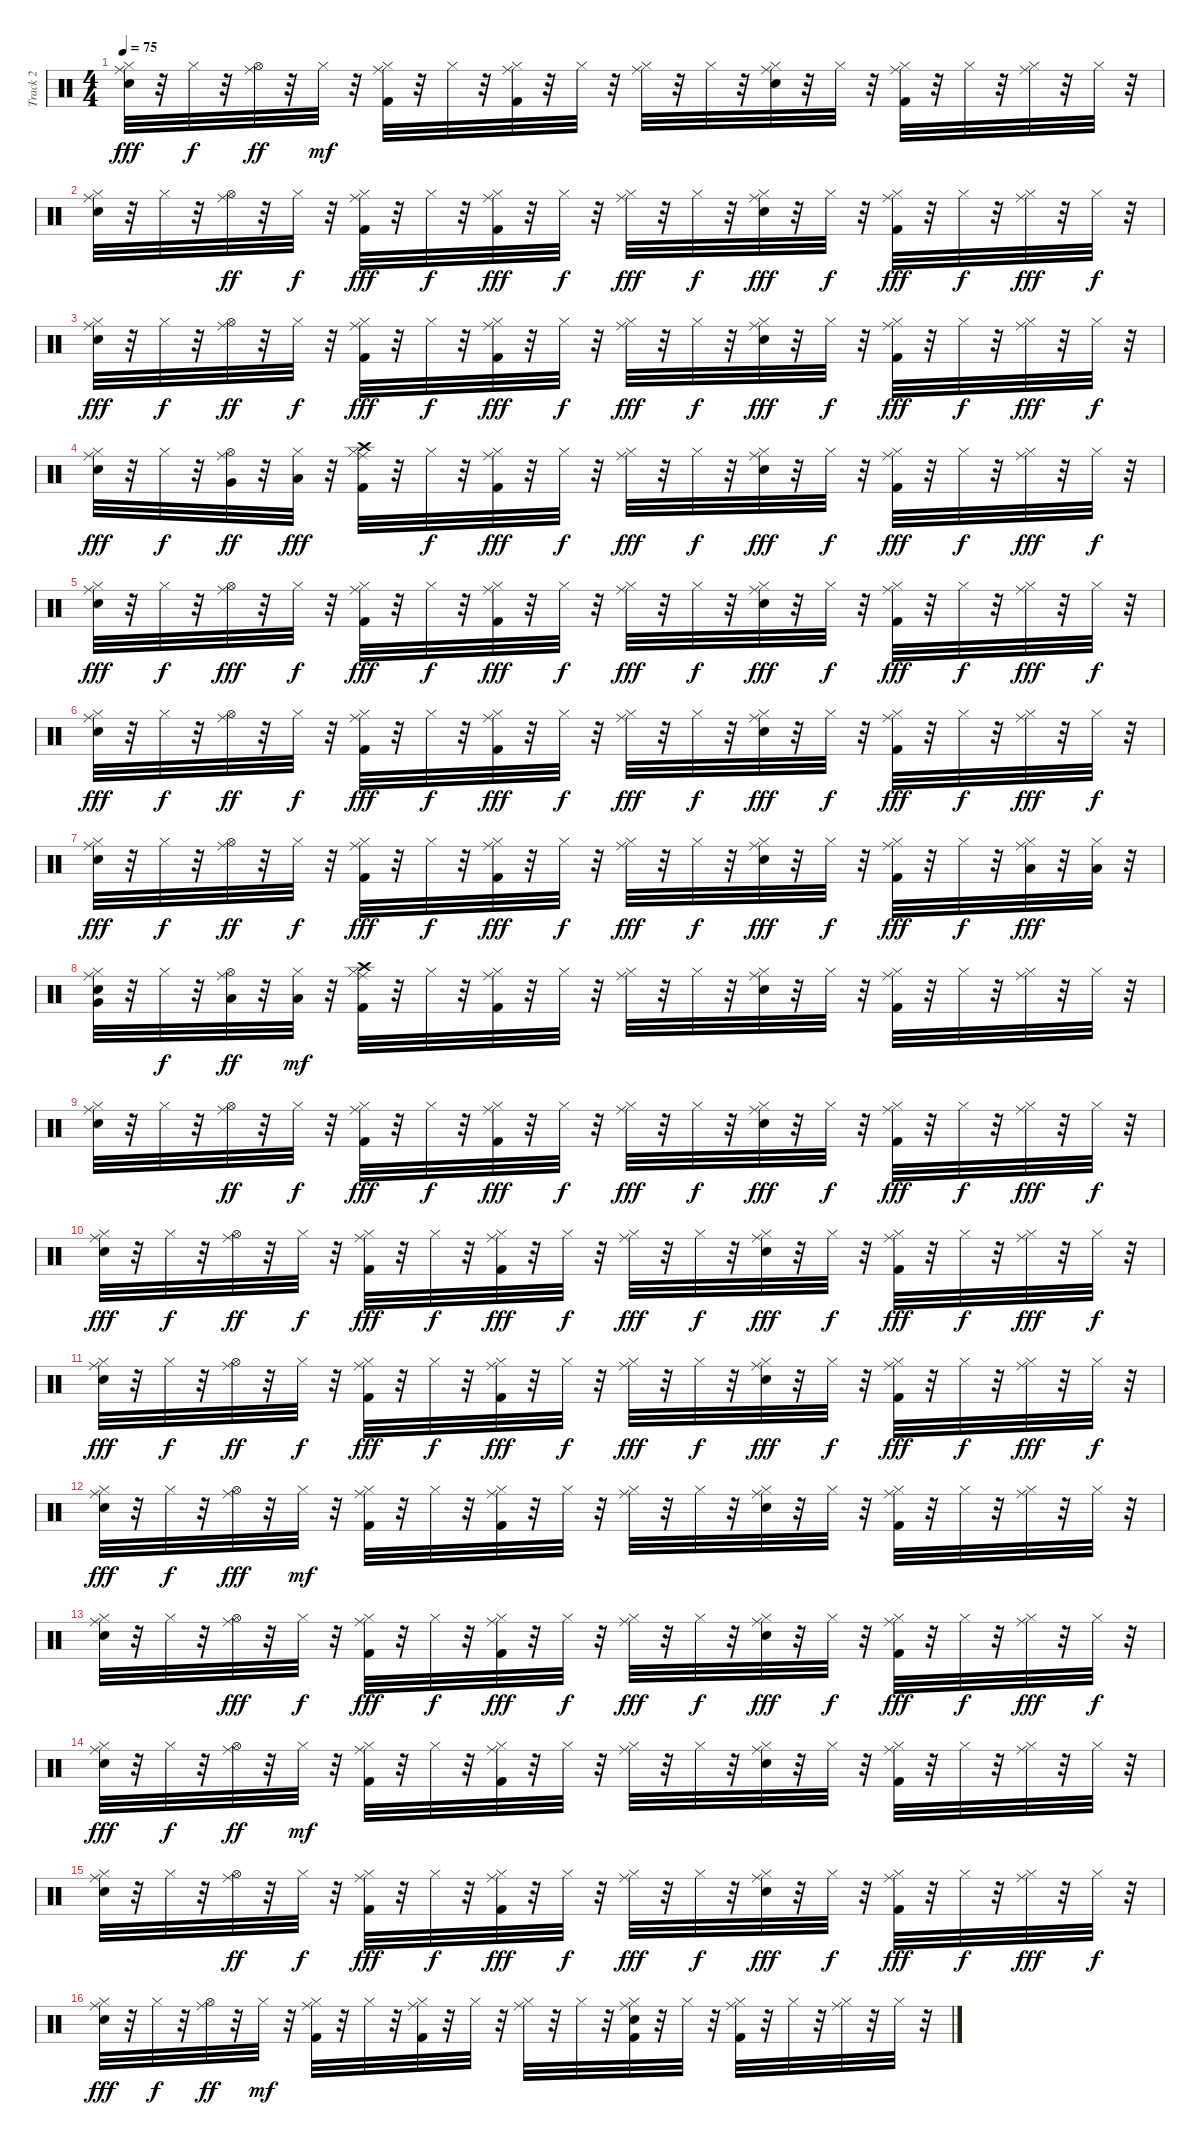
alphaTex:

\track ("Track 2" "Track 2") {instrument percussion}
\staff {score}
\articulation defaults
\ts (4 4)
\tempo 75
\clef neutral
\ks c
("Snare (hit) 2" "Ride (middle)" "Hi-Hat (closed)").32{dy fff} r.32 "Hi-Hat (closed)".32{dy f} r.32 ("Ride (middle)" "Hi-Hat (open)").32{dy ff} r.32 "Hi-Hat (closed)".32{dy mf} r.32 ("Kick (hit) 2" "Ride (middle)" "Hi-Hat (closed)").32 r.32 "Hi-Hat (closed)".32 r.32 ("Kick (hit) 2" "Ride (middle)" "Hi-Hat (closed)").32 r.32 "Hi-Hat (closed)".32 r.32 ("Ride (middle)" "Hi-Hat (closed)").32 r.32 "Hi-Hat (closed)".32 r.32 ("Snare (hit) 2" "Ride (middle)" "Hi-Hat (closed)").32 r.32 "Hi-Hat (closed)".32 r.32 ("Ride (middle)" "Kick (hit) 2" "Hi-Hat (closed)").32 r.32 "Hi-Hat (closed)".32 r.32 ("Ride (middle)" "Hi-Hat (closed)").32 r.32 "Hi-Hat (closed)".32 r.32 |
("Snare (hit) 2" "Ride (middle)" "Hi-Hat (closed)").32 r.32 "Hi-Hat (closed)".32 r.32 ("Ride (middle)" "Hi-Hat (open)").32{dy ff} r.32 "Hi-Hat (closed)".32{dy f} r.32 ("Kick (hit) 2" "Ride (middle)" "Hi-Hat (closed)").32{dy fff} r.32 "Hi-Hat (closed)".32{dy f} r.32 ("Kick (hit) 2" "Ride (middle)" "Hi-Hat (closed)").32{dy fff} r.32 "Hi-Hat (closed)".32{dy f} r.32 ("Ride (middle)" "Hi-Hat (closed)").32{dy fff} r.32 "Hi-Hat (closed)".32{dy f} r.32 ("Snare (hit) 2" "Ride (middle)" "Hi-Hat (closed)").32{dy fff} r.32 "Hi-Hat (closed)".32{dy f} r.32 ("Ride (middle)" "Kick (hit) 2" "Hi-Hat (closed)").32{dy fff} r.32 "Hi-Hat (closed)".32{dy f} r.32 ("Ride (middle)" "Hi-Hat (closed)").32{dy fff} r.32 "Hi-Hat (closed)".32{dy f} r.32 |
("Snare (hit) 2" "Ride (middle)" "Hi-Hat (closed)").32{dy fff} r.32 "Hi-Hat (closed)".32{dy f} r.32 ("Ride (middle)" "Hi-Hat (open)").32{dy ff} r.32 "Hi-Hat (closed)".32{dy f} r.32 ("Ride (middle)" "Kick (hit) 2" "Hi-Hat (closed)").32{dy fff} r.32 "Hi-Hat (closed)".32{dy f} r.32 ("Kick (hit) 2" "Ride (middle)" "Hi-Hat (closed)").32{dy fff} r.32 "Hi-Hat (closed)".32{dy f} r.32 ("Ride (middle)" "Hi-Hat (closed)").32{dy fff} r.32 "Hi-Hat (closed)".32{dy f} r.32 ("Snare (hit) 2" "Ride (middle)" "Hi-Hat (closed)").32{dy fff} r.32 "Hi-Hat (closed)".32{dy f} r.32 ("Kick (hit) 2" "Ride (middle)" "Hi-Hat (closed)").32{dy fff} r.32 "Hi-Hat (closed)".32{dy f} r.32 ("Ride (middle)" "Hi-Hat (closed)").32{dy fff} r.32 "Hi-Hat (closed)".32{dy f} r.32 |
("Snare (hit) 2" "Ride (middle)" "Hi-Hat (closed)").32{dy fff} r.32 "Hi-Hat (closed)".32{dy f} r.32 ("Ride (middle)" "Very Low Tom (hit)" "Hi-Hat (open)").32{dy ff} r.32 ("Low Floor Tom (hit)" "Hi-Hat (closed)").32{dy fff} r.32 ("Kick (hit) 2" "Ride (middle)" "Crash high (hit)" "Hi-Hat (closed)").32 r.32 "Hi-Hat (closed)".32{dy f} r.32 ("Kick (hit) 2" "Ride (middle)" "Hi-Hat (closed)").32{dy fff} r.32 "Hi-Hat (closed)".32{dy f} r.32 ("Ride (middle)" "Hi-Hat (closed)").32{dy fff} r.32 "Hi-Hat (closed)".32{dy f} r.32 ("Snare (hit) 2" "Ride (middle)" "Hi-Hat (closed)").32{dy fff} r.32 "Hi-Hat (closed)".32{dy f} r.32 ("Kick (hit) 2" "Ride (middle)" "Hi-Hat (closed)").32{dy fff} r.32 "Hi-Hat (closed)".32{dy f} r.32 ("Ride (middle)" "Hi-Hat (closed)").32{dy fff} r.32 "Hi-Hat (closed)".32{dy f} r.32 |
("Ride (middle)" "Snare (hit) 2" "Hi-Hat (closed)").32{dy fff} r.32 "Hi-Hat (closed)".32{dy f} r.32 ("Ride (middle)" "Hi-Hat (open)").32{dy fff} r.32 "Hi-Hat (closed)".32{dy f} r.32 ("Kick (hit) 2" "Ride (middle)" "Hi-Hat (closed)").32{dy fff} r.32 "Hi-Hat (closed)".32{dy f} r.32 ("Ride (middle)" "Kick (hit) 2" "Hi-Hat (closed)").32{dy fff} r.32 "Hi-Hat (closed)".32{dy f} r.32 ("Ride (middle)" "Hi-Hat (closed)").32{dy fff} r.32 "Hi-Hat (closed)".32{dy f} r.32 ("Ride (middle)" "Snare (hit) 2" "Hi-Hat (closed)").32{dy fff} r.32 "Hi-Hat (closed)".32{dy f} r.32 ("Kick (hit) 2" "Ride (middle)" "Hi-Hat (closed)").32{dy fff} r.32 "Hi-Hat (closed)".32{dy f} r.32 ("Ride (middle)" "Hi-Hat (closed)").32{dy fff} r.32 "Hi-Hat (closed)".32{dy f} r.32 |
("Snare (hit) 2" "Ride (middle)" "Hi-Hat (closed)").32{dy fff} r.32 "Hi-Hat (closed)".32{dy f} r.32 ("Ride (middle)" "Hi-Hat (open)").32{dy ff} r.32 "Hi-Hat (closed)".32{dy f} r.32 ("Kick (hit) 2" "Ride (middle)" "Hi-Hat (closed)").32{dy fff} r.32 "Hi-Hat (closed)".32{dy f} r.32 ("Kick (hit) 2" "Ride (middle)" "Hi-Hat (closed)").32{dy fff} r.32 "Hi-Hat (closed)".32{dy f} r.32 ("Ride (middle)" "Hi-Hat (closed)").32{dy fff} r.32 "Hi-Hat (closed)".32{dy f} r.32 ("Snare (hit) 2" "Ride (middle)" "Hi-Hat (closed)").32{dy fff} r.32 "Hi-Hat (closed)".32{dy f} r.32 ("Ride (middle)" "Kick (hit) 2" "Hi-Hat (closed)").32{dy fff} r.32 "Hi-Hat (closed)".32{dy f} r.32 ("Ride (middle)" "Hi-Hat (closed)").32{dy fff} r.32 "Hi-Hat (closed)".32{dy f} r.32 |
("Ride (middle)" "Snare (hit) 2" "Hi-Hat (closed)").32{dy fff} r.32 "Hi-Hat (closed)".32{dy f} r.32 ("Ride (middle)" "Hi-Hat (open)").32{dy ff} r.32 "Hi-Hat (closed)".32{dy f} r.32 ("Kick (hit) 2" "Ride (middle)" "Hi-Hat (closed)").32{dy fff} r.32 "Hi-Hat (closed)".32{dy f} r.32 ("Kick (hit) 2" "Ride (middle)" "Hi-Hat (closed)").32{dy fff} r.32 "Hi-Hat (closed)".32{dy f} r.32 ("Ride (middle)" "Hi-Hat (closed)").32{dy fff} r.32 "Hi-Hat (closed)".32{dy f} r.32 ("Snare (hit) 2" "Ride (middle)" "Hi-Hat (closed)").32{dy fff} r.32 "Hi-Hat (closed)".32{dy f} r.32 ("Ride (middle)" "Kick (hit) 2" "Hi-Hat (closed)").32{dy fff} r.32 "Hi-Hat (closed)".32{dy f} r.32 ("Ride (middle)" "Low Tom (hit)" "Hi-Hat (closed)").32{dy fff} r.32 ("Low Tom (hit)" "Hi-Hat (closed)").32 r.32 |
("Snare (hit) 2" "Ride (middle)" "Very Low Tom (hit)" "Hi-Hat (closed)").32 r.32 "Hi-Hat (closed)".32{dy f} r.32 ("Ride (middle)" "Low Floor Tom (hit)" "Hi-Hat (open)").32{dy ff} r.32 ("Low Floor Tom (hit)" "Hi-Hat (closed)").32{dy mf} r.32 ("Kick (hit) 2" "Ride (middle)" "Crash high (hit)" "Hi-Hat (closed)").32 r.32 "Hi-Hat (closed)".32 r.32 ("Kick (hit) 2" "Ride (middle)" "Hi-Hat (closed)").32 r.32 "Hi-Hat (closed)".32 r.32 ("Ride (middle)" "Hi-Hat (closed)").32 r.32 "Hi-Hat (closed)".32 r.32 ("Snare (hit) 2" "Ride (middle)" "Hi-Hat (closed)").32 r.32 "Hi-Hat (closed)".32 r.32 ("Ride (middle)" "Kick (hit) 2" "Hi-Hat (closed)").32 r.32 "Hi-Hat (closed)".32 r.32 ("Ride (middle)" "Hi-Hat (closed)").32 r.32 "Hi-Hat (closed)".32 r.32 |
("Snare (hit) 2" "Ride (middle)" "Hi-Hat (closed)").32 r.32 "Hi-Hat (closed)".32 r.32 ("Ride (middle)" "Hi-Hat (open)").32{dy ff} r.32 "Hi-Hat (closed)".32{dy f} r.32 ("Kick (hit) 2" "Ride (middle)" "Hi-Hat (closed)").32{dy fff} r.32 "Hi-Hat (closed)".32{dy f} r.32 ("Kick (hit) 2" "Ride (middle)" "Hi-Hat (closed)").32{dy fff} r.32 "Hi-Hat (closed)".32{dy f} r.32 ("Ride (middle)" "Hi-Hat (closed)").32{dy fff} r.32 "Hi-Hat (closed)".32{dy f} r.32 ("Snare (hit) 2" "Ride (middle)" "Hi-Hat (closed)").32{dy fff} r.32 "Hi-Hat (closed)".32{dy f} r.32 ("Kick (hit) 2" "Ride (middle)" "Hi-Hat (closed)").32{dy fff} r.32 "Hi-Hat (closed)".32{dy f} r.32 ("Ride (middle)" "Hi-Hat (closed)").32{dy fff} r.32 "Hi-Hat (closed)".32{dy f} r.32 |
("Snare (hit) 2" "Ride (middle)" "Hi-Hat (closed)").32{dy fff} r.32 "Hi-Hat (closed)".32{dy f} r.32 ("Ride (middle)" "Hi-Hat (open)").32{dy ff} r.32 "Hi-Hat (closed)".32{dy f} r.32 ("Ride (middle)" "Kick (hit) 2" "Hi-Hat (closed)").32{dy fff} r.32 "Hi-Hat (closed)".32{dy f} r.32 ("Kick (hit) 2" "Ride (middle)" "Hi-Hat (closed)").32{dy fff} r.32 "Hi-Hat (closed)".32{dy f} r.32 ("Ride (middle)" "Hi-Hat (closed)").32{dy fff} r.32 "Hi-Hat (closed)".32{dy f} r.32 ("Snare (hit) 2" "Ride (middle)" "Hi-Hat (closed)").32{dy fff} r.32 "Hi-Hat (closed)".32{dy f} r.32 ("Kick (hit) 2" "Ride (middle)" "Hi-Hat (closed)").32{dy fff} r.32 "Hi-Hat (closed)".32{dy f} r.32 ("Ride (middle)" "Hi-Hat (closed)").32{dy fff} r.32 "Hi-Hat (closed)".32{dy f} r.32 |
("Snare (hit) 2" "Ride (middle)" "Hi-Hat (closed)").32{dy fff} r.32 "Hi-Hat (closed)".32{dy f} r.32 ("Ride (middle)" "Hi-Hat (open)").32{dy ff} r.32 "Hi-Hat (closed)".32{dy f} r.32 ("Kick (hit) 2" "Ride (middle)" "Hi-Hat (closed)").32{dy fff} r.32 "Hi-Hat (closed)".32{dy f} r.32 ("Ride (middle)" "Kick (hit) 2" "Hi-Hat (closed)").32{dy fff} r.32 "Hi-Hat (closed)".32{dy f} r.32 ("Ride (middle)" "Hi-Hat (closed)").32{dy fff} r.32 "Hi-Hat (closed)".32{dy f} r.32 ("Ride (middle)" "Snare (hit) 2" "Hi-Hat (closed)").32{dy fff} r.32 "Hi-Hat (closed)".32{dy f} r.32 ("Ride (middle)" "Kick (hit) 2" "Hi-Hat (closed)").32{dy fff} r.32 "Hi-Hat (closed)".32{dy f} r.32 ("Ride (middle)" "Hi-Hat (closed)").32{dy fff} r.32 "Hi-Hat (closed)".32{dy f} r.32 |
("Snare (hit) 2" "Ride (middle)" "Hi-Hat (closed)").32{dy fff} r.32 "Hi-Hat (closed)".32{dy f} r.32 ("Ride (middle)" "Hi-Hat (open)").32{dy fff} r.32 "Hi-Hat (closed)".32{dy mf} r.32 ("Kick (hit) 2" "Ride (middle)" "Hi-Hat (closed)").32 r.32 "Hi-Hat (closed)".32 r.32 ("Kick (hit) 2" "Ride (middle)" "Hi-Hat (closed)").32 r.32 "Hi-Hat (closed)".32 r.32 ("Ride (middle)" "Hi-Hat (closed)").32 r.32 "Hi-Hat (closed)".32 r.32 ("Snare (hit) 2" "Ride (middle)" "Hi-Hat (closed)").32 r.32 "Hi-Hat (closed)".32 r.32 ("Kick (hit) 2" "Ride (middle)" "Hi-Hat (closed)").32 r.32 "Hi-Hat (closed)".32 r.32 ("Ride (middle)" "Hi-Hat (closed)").32 r.32 "Hi-Hat (closed)".32 r.32 |
("Snare (hit) 2" "Ride (middle)" "Hi-Hat (closed)").32 r.32 "Hi-Hat (closed)".32 r.32 ("Ride (middle)" "Hi-Hat (open)").32{dy fff} r.32 "Hi-Hat (closed)".32{dy f} r.32 ("Kick (hit) 2" "Ride (middle)" "Hi-Hat (closed)").32{dy fff} r.32 "Hi-Hat (closed)".32{dy f} r.32 ("Ride (middle)" "Kick (hit) 2" "Hi-Hat (closed)").32{dy fff} r.32 "Hi-Hat (closed)".32{dy f} r.32 ("Ride (middle)" "Hi-Hat (closed)").32{dy fff} r.32 "Hi-Hat (closed)".32{dy f} r.32 ("Snare (hit) 2" "Ride (middle)" "Hi-Hat (closed)").32{dy fff} r.32 "Hi-Hat (closed)".32{dy f} r.32 ("Kick (hit) 2" "Ride (middle)" "Hi-Hat (closed)").32{dy fff} r.32 "Hi-Hat (closed)".32{dy f} r.32 ("Ride (middle)" "Hi-Hat (closed)").32{dy fff} r.32 "Hi-Hat (closed)".32{dy f} r.32 |
("Snare (hit) 2" "Ride (middle)" "Hi-Hat (closed)").32{dy fff} r.32 "Hi-Hat (closed)".32{dy f} r.32 ("Ride (middle)" "Hi-Hat (open)").32{dy ff} r.32 "Hi-Hat (closed)".32{dy mf} r.32 ("Kick (hit) 2" "Ride (middle)" "Hi-Hat (closed)").32 r.32 "Hi-Hat (closed)".32 r.32 ("Kick (hit) 2" "Ride (middle)" "Hi-Hat (closed)").32 r.32 "Hi-Hat (closed)".32 r.32 ("Ride (middle)" "Hi-Hat (closed)").32 r.32 "Hi-Hat (closed)".32 r.32 ("Snare (hit) 2" "Ride (middle)" "Hi-Hat (closed)").32 r.32 "Hi-Hat (closed)".32 r.32 ("Kick (hit) 2" "Ride (middle)" "Hi-Hat (closed)").32 r.32 "Hi-Hat (closed)".32 r.32 ("Ride (middle)" "Hi-Hat (closed)").32 r.32 "Hi-Hat (closed)".32 r.32 |
("Ride (middle)" "Snare (hit) 2" "Hi-Hat (closed)").32 r.32 "Hi-Hat (closed)".32 r.32 ("Ride (middle)" "Hi-Hat (open)").32{dy ff} r.32 "Hi-Hat (closed)".32{dy f} r.32 ("Kick (hit) 2" "Ride (middle)" "Hi-Hat (closed)").32{dy fff} r.32 "Hi-Hat (closed)".32{dy f} r.32 ("Kick (hit) 2" "Ride (middle)" "Hi-Hat (closed)").32{dy fff} r.32 "Hi-Hat (closed)".32{dy f} r.32 ("Ride (middle)" "Hi-Hat (closed)").32{dy fff} r.32 "Hi-Hat (closed)".32{dy f} r.32 ("Ride (middle)" "Snare (hit) 2" "Hi-Hat (closed)").32{dy fff} r.32 "Hi-Hat (closed)".32{dy f} r.32 ("Ride (middle)" "Kick (hit) 2" "Hi-Hat (closed)").32{dy fff} r.32 "Hi-Hat (closed)".32{dy f} r.32 ("Ride (middle)" "Hi-Hat (closed)").32{dy fff} r.32 "Hi-Hat (closed)".32{dy f} r.32 |
("Snare (hit) 2" "Ride (middle)" "Hi-Hat (closed)").32{dy fff} r.32 "Hi-Hat (closed)".32{dy f} r.32 ("Ride (middle)" "Hi-Hat (open)").32{dy ff} r.32 "Hi-Hat (closed)".32{dy mf} r.32 ("Ride (middle)" "Kick (hit) 2" "Hi-Hat (closed)").32 r.32 "Hi-Hat (closed)".32 r.32 ("Kick (hit) 2" "Ride (middle)" "Hi-Hat (closed)").32 r.32 "Hi-Hat (closed)".32 r.32 ("Ride (middle)" "Hi-Hat (closed)").32 r.32 "Hi-Hat (closed)".32 r.32 ("Snare (hit) 2" "Kick (hit) 2" "Ride (middle)" "Hi-Hat (closed)").32 r.32 "Hi-Hat (closed)".32 r.32 ("Kick (hit) 2" "Ride (middle)" "Hi-Hat (closed)").32 r.32 "Hi-Hat (closed)".32 r.32 ("Ride (middle)" "Hi-Hat (closed)").32 r.32 "Hi-Hat (closed)".32 r.32
